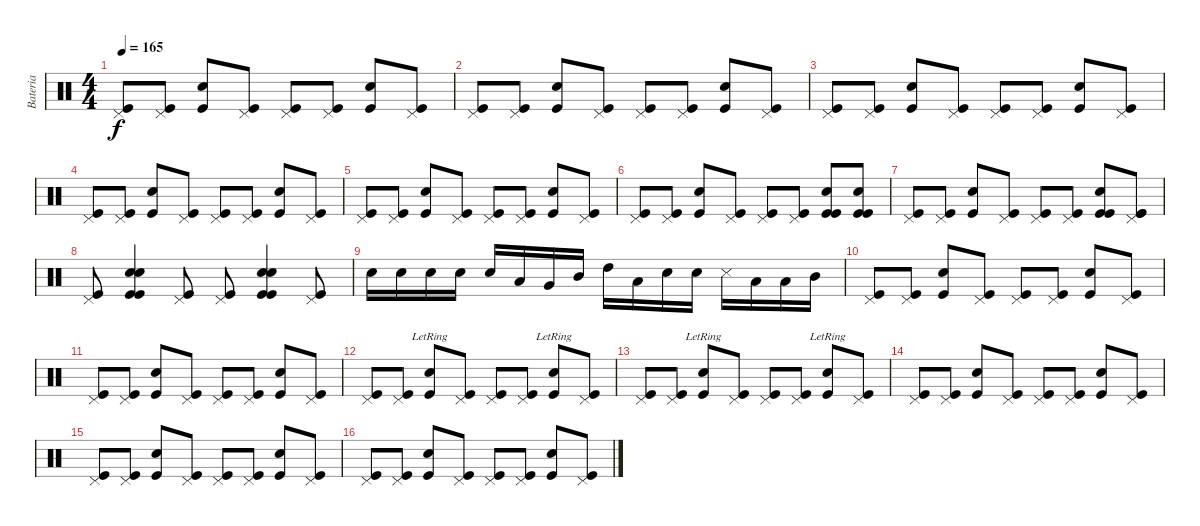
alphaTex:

\track ("Bateria" "Bateria") {instrument percussion}
\staff {score}
\articulation defaults
\ts (4 4)
\tempo 165
\clef neutral
\ks c
("Kick (hit)" "Pedal Hi-Hat (hit)").8{dy f} ("Kick (hit)" "Pedal Hi-Hat (hit)").8 ("Kick (hit)" "Electric Snare (hit)").8 ("Kick (hit)" "Pedal Hi-Hat (hit)").8 ("Kick (hit)" "Pedal Hi-Hat (hit)").8 ("Kick (hit)" "Pedal Hi-Hat (hit)").8 ("Kick (hit)" "Electric Snare (hit)").8 ("Kick (hit)" "Pedal Hi-Hat (hit)").8 |
("Kick (hit)" "Pedal Hi-Hat (hit)").8 ("Kick (hit)" "Pedal Hi-Hat (hit)").8 ("Kick (hit)" "Electric Snare (hit)").8 ("Kick (hit)" "Pedal Hi-Hat (hit)").8 ("Kick (hit)" "Pedal Hi-Hat (hit)").8 ("Kick (hit)" "Pedal Hi-Hat (hit)").8 ("Kick (hit)" "Electric Snare (hit)").8 ("Kick (hit)" "Pedal Hi-Hat (hit)").8 |
("Kick (hit)" "Pedal Hi-Hat (hit)").8 ("Kick (hit)" "Pedal Hi-Hat (hit)").8 ("Kick (hit)" "Electric Snare (hit)").8 ("Kick (hit)" "Pedal Hi-Hat (hit)").8 ("Kick (hit)" "Pedal Hi-Hat (hit)").8 ("Kick (hit)" "Pedal Hi-Hat (hit)").8 ("Kick (hit)" "Electric Snare (hit)").8 ("Kick (hit)" "Pedal Hi-Hat (hit)").8 |
("Kick (hit)" "Pedal Hi-Hat (hit)").8 ("Kick (hit)" "Pedal Hi-Hat (hit)").8 ("Kick (hit)" "Electric Snare (hit)").8 ("Kick (hit)" "Pedal Hi-Hat (hit)").8 ("Kick (hit)" "Pedal Hi-Hat (hit)").8 ("Kick (hit)" "Pedal Hi-Hat (hit)").8 ("Kick (hit)" "Electric Snare (hit)").8 ("Kick (hit)" "Pedal Hi-Hat (hit)").8 |
("Kick (hit)" "Pedal Hi-Hat (hit)").8 ("Kick (hit)" "Pedal Hi-Hat (hit)").8 ("Kick (hit)" "Electric Snare (hit)").8 ("Kick (hit)" "Pedal Hi-Hat (hit)").8 ("Kick (hit)" "Pedal Hi-Hat (hit)").8 ("Kick (hit)" "Pedal Hi-Hat (hit)").8 ("Kick (hit)" "Electric Snare (hit)").8 ("Kick (hit)" "Pedal Hi-Hat (hit)").8 |
("Kick (hit)" "Pedal Hi-Hat (hit)").8 ("Kick (hit)" "Pedal Hi-Hat (hit)").8 ("Kick (hit)" "Electric Snare (hit)").8 ("Kick (hit)" "Pedal Hi-Hat (hit)").8 ("Kick (hit)" "Pedal Hi-Hat (hit)").8 ("Kick (hit)" "Pedal Hi-Hat (hit)").8 ("Kick (hit)" "Electric Snare (hit)" "Kick (hit)").8 ("Kick (hit)" "Electric Snare (hit)" "Kick (hit)").8 |
("Kick (hit)" "Pedal Hi-Hat (hit)").8 ("Kick (hit)" "Pedal Hi-Hat (hit)").8 ("Kick (hit)" "Electric Snare (hit)").8 ("Kick (hit)" "Pedal Hi-Hat (hit)").8 ("Kick (hit)" "Pedal Hi-Hat (hit)").8 ("Kick (hit)" "Pedal Hi-Hat (hit)").8 ("Kick (hit)" "Electric Snare (hit)" "Kick (hit)").8 ("Kick (hit)" "Pedal Hi-Hat (hit)" "Kick (hit)").8 |
("Kick (hit)" "Pedal Hi-Hat (hit)").8 ("Kick (hit)" "Electric Snare (hit)" "Electric Snare (hit)" "Kick (hit)").4 ("Kick (hit)" "Pedal Hi-Hat (hit)").8 ("Kick (hit)" "Pedal Hi-Hat (hit)").8 ("Kick (hit)" "Electric Snare (hit)" "Electric Snare (hit)" "Kick (hit)").4 ("Kick (hit)" "Pedal Hi-Hat (hit)").8 |
"Metronome (bell)".16 "Metronome (bell)".16 "Metronome (bell)".16 "Snare (hit) 2".16 "Snare (hit) 2".16 "Low Floor Tom (hit)".16 "Very Low Tom (hit)".16 "Mid Tom (hit)".16 "High Tom (hit)".16 "Low Tom (hit)".16 "Metronome (bell)".16 "Snare (hit) 2".16 "Metronome (hit)".16 "Low Floor Tom (hit)".16 "Low Tom (hit)".16 "Mid Tom (hit)".16 |
("Kick (hit)" "Pedal Hi-Hat (hit)").8 ("Kick (hit)" "Pedal Hi-Hat (hit)").8 ("Kick (hit)" "Electric Snare (hit)").8 ("Kick (hit)" "Pedal Hi-Hat (hit)").8 ("Kick (hit)" "Pedal Hi-Hat (hit)").8 ("Kick (hit)" "Pedal Hi-Hat (hit)").8 ("Kick (hit)" "Electric Snare (hit)").8 ("Kick (hit)" "Pedal Hi-Hat (hit)").8 |
("Kick (hit)" "Pedal Hi-Hat (hit)").8 ("Kick (hit)" "Pedal Hi-Hat (hit)").8 ("Kick (hit)" "Electric Snare (hit)").8 ("Kick (hit)" "Pedal Hi-Hat (hit)").8 ("Kick (hit)" "Pedal Hi-Hat (hit)").8 ("Kick (hit)" "Pedal Hi-Hat (hit)").8 ("Kick (hit)" "Electric Snare (hit)").8 ("Kick (hit)" "Pedal Hi-Hat (hit)").8 |
("Kick (hit)" "Pedal Hi-Hat (hit)").8 ("Kick (hit)" "Pedal Hi-Hat (hit)").8 ("Kick (hit)" "Electric Snare (hit)"{lr}).8 ("Kick (hit)" "Pedal Hi-Hat (hit)").8 ("Kick (hit)" "Pedal Hi-Hat (hit)").8 ("Kick (hit)" "Pedal Hi-Hat (hit)").8 ("Kick (hit)" "Electric Snare (hit)"{lr}).8 ("Kick (hit)" "Pedal Hi-Hat (hit)").8 |
("Kick (hit)" "Pedal Hi-Hat (hit)").8 ("Kick (hit)" "Pedal Hi-Hat (hit)").8 ("Kick (hit)" "Electric Snare (hit)"{lr}).8 ("Kick (hit)" "Pedal Hi-Hat (hit)").8 ("Kick (hit)" "Pedal Hi-Hat (hit)").8 ("Kick (hit)" "Pedal Hi-Hat (hit)").8 ("Kick (hit)" "Electric Snare (hit)"{lr}).8 ("Kick (hit)" "Pedal Hi-Hat (hit)").8 |
("Kick (hit)" "Pedal Hi-Hat (hit)").8 ("Kick (hit)" "Pedal Hi-Hat (hit)").8 ("Kick (hit)" "Electric Snare (hit)").8 ("Kick (hit)" "Pedal Hi-Hat (hit)").8 ("Kick (hit)" "Pedal Hi-Hat (hit)").8 ("Kick (hit)" "Pedal Hi-Hat (hit)").8 ("Kick (hit)" "Electric Snare (hit)").8 ("Kick (hit)" "Pedal Hi-Hat (hit)").8 |
("Kick (hit)" "Pedal Hi-Hat (hit)").8 ("Kick (hit)" "Pedal Hi-Hat (hit)").8 ("Kick (hit)" "Electric Snare (hit)").8 ("Kick (hit)" "Pedal Hi-Hat (hit)").8 ("Kick (hit)" "Pedal Hi-Hat (hit)").8 ("Kick (hit)" "Pedal Hi-Hat (hit)").8 ("Kick (hit)" "Electric Snare (hit)").8 ("Kick (hit)" "Pedal Hi-Hat (hit)").8 |
("Kick (hit)" "Pedal Hi-Hat (hit)").8 ("Kick (hit)" "Pedal Hi-Hat (hit)").8 ("Kick (hit)" "Electric Snare (hit)").8 ("Kick (hit)" "Pedal Hi-Hat (hit)").8 ("Kick (hit)" "Pedal Hi-Hat (hit)").8 ("Kick (hit)" "Pedal Hi-Hat (hit)").8 ("Kick (hit)" "Electric Snare (hit)").8 ("Kick (hit)" "Pedal Hi-Hat (hit)").8
